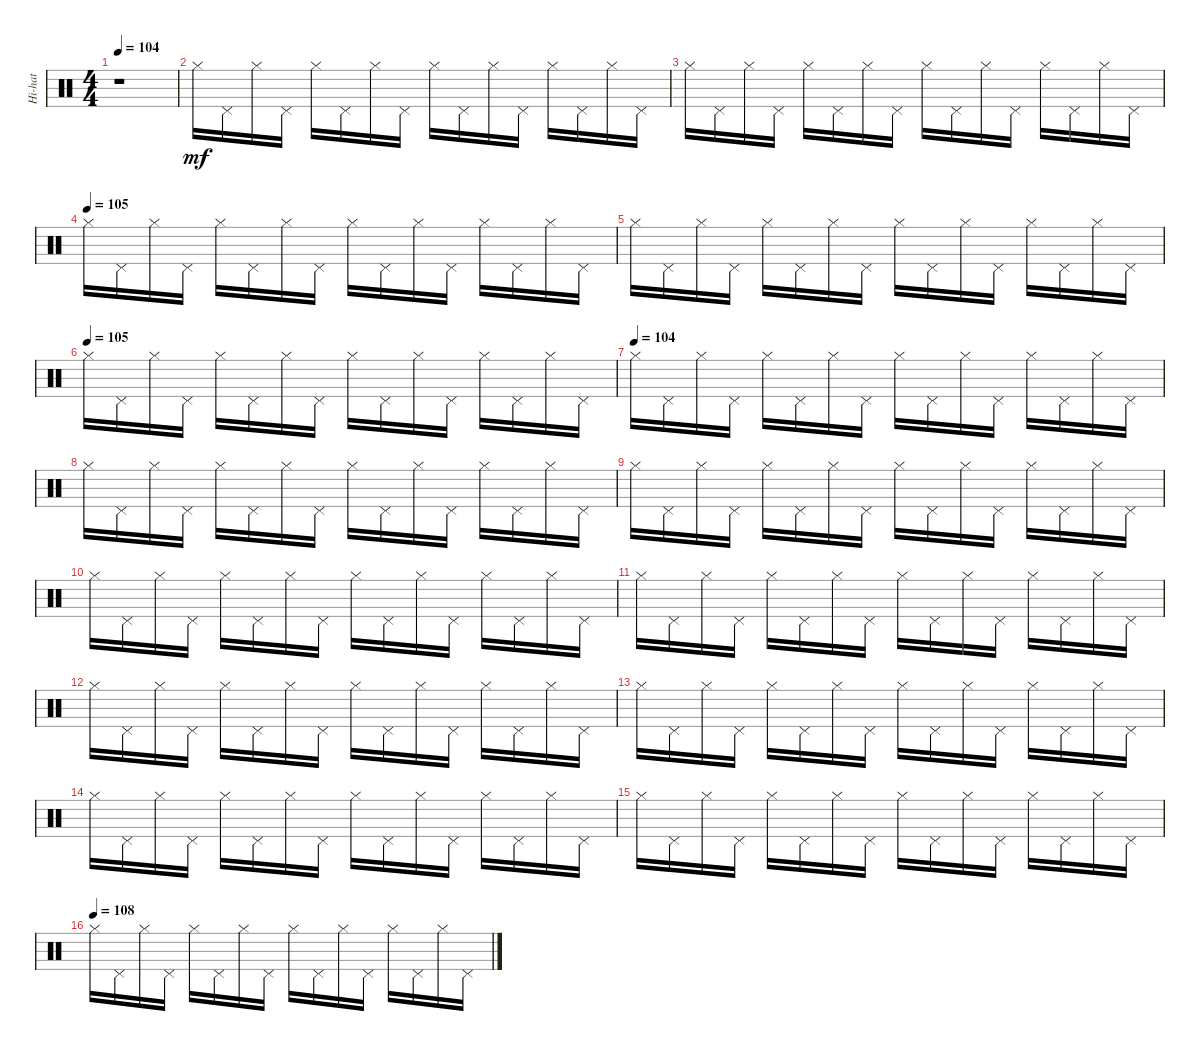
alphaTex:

\track ("Hi-hat" "Hi-hat") {instrument percussion}
\staff {score}
\articulation defaults
\ts (4 4)
\tempo 104
\clef neutral
\ks c
r.1{dy mf} |
"Hi-Hat (closed)".16 "Pedal Hi-Hat (hit)".16 "Hi-Hat (closed)".16 "Pedal Hi-Hat (hit)".16 "Hi-Hat (closed)".16 "Pedal Hi-Hat (hit)".16 "Hi-Hat (closed)".16 "Pedal Hi-Hat (hit)".16 "Hi-Hat (closed)".16 "Pedal Hi-Hat (hit)".16 "Hi-Hat (closed)".16 "Pedal Hi-Hat (hit)".16 "Hi-Hat (closed)".16 "Pedal Hi-Hat (hit)".16 "Hi-Hat (closed)".16 "Pedal Hi-Hat (hit)".16 |
"Hi-Hat (closed)".16 "Pedal Hi-Hat (hit)".16 "Hi-Hat (closed)".16 "Pedal Hi-Hat (hit)".16 "Hi-Hat (closed)".16 "Pedal Hi-Hat (hit)".16 "Hi-Hat (closed)".16 "Pedal Hi-Hat (hit)".16 "Hi-Hat (closed)".16 "Pedal Hi-Hat (hit)".16 "Hi-Hat (closed)".16 "Pedal Hi-Hat (hit)".16 "Hi-Hat (closed)".16 "Pedal Hi-Hat (hit)".16 "Hi-Hat (closed)".16 "Pedal Hi-Hat (hit)".16 |
\tempo (105)
"Hi-Hat (closed)".16 "Pedal Hi-Hat (hit)".16 "Hi-Hat (closed)".16 "Pedal Hi-Hat (hit)".16 "Hi-Hat (closed)".16 "Pedal Hi-Hat (hit)".16 "Hi-Hat (closed)".16 "Pedal Hi-Hat (hit)".16 "Hi-Hat (closed)".16 "Pedal Hi-Hat (hit)".16 "Hi-Hat (closed)".16 "Pedal Hi-Hat (hit)".16 "Hi-Hat (closed)".16 "Pedal Hi-Hat (hit)".16 "Hi-Hat (closed)".16 "Pedal Hi-Hat (hit)".16 |
"Hi-Hat (closed)".16 "Pedal Hi-Hat (hit)".16 "Hi-Hat (closed)".16 "Pedal Hi-Hat (hit)".16 "Hi-Hat (closed)".16 "Pedal Hi-Hat (hit)".16 "Hi-Hat (closed)".16 "Pedal Hi-Hat (hit)".16 "Hi-Hat (closed)".16 "Pedal Hi-Hat (hit)".16 "Hi-Hat (closed)".16 "Pedal Hi-Hat (hit)".16 "Hi-Hat (closed)".16 "Pedal Hi-Hat (hit)".16 "Hi-Hat (closed)".16 "Pedal Hi-Hat (hit)".16 |
\tempo (105)
"Hi-Hat (closed)".16 "Pedal Hi-Hat (hit)".16 "Hi-Hat (closed)".16 "Pedal Hi-Hat (hit)".16 "Hi-Hat (closed)".16 "Pedal Hi-Hat (hit)".16 "Hi-Hat (closed)".16 "Pedal Hi-Hat (hit)".16 "Hi-Hat (closed)".16 "Pedal Hi-Hat (hit)".16 "Hi-Hat (closed)".16 "Pedal Hi-Hat (hit)".16 "Hi-Hat (closed)".16 "Pedal Hi-Hat (hit)".16 "Hi-Hat (closed)".16 "Pedal Hi-Hat (hit)".16 |
\tempo (104)
"Hi-Hat (closed)".16 "Pedal Hi-Hat (hit)".16 "Hi-Hat (closed)".16 "Pedal Hi-Hat (hit)".16 "Hi-Hat (closed)".16 "Pedal Hi-Hat (hit)".16 "Hi-Hat (closed)".16 "Pedal Hi-Hat (hit)".16 "Hi-Hat (closed)".16 "Pedal Hi-Hat (hit)".16 "Hi-Hat (closed)".16 "Pedal Hi-Hat (hit)".16 "Hi-Hat (closed)".16 "Pedal Hi-Hat (hit)".16 "Hi-Hat (closed)".16 "Pedal Hi-Hat (hit)".16 |
"Hi-Hat (closed)".16 "Pedal Hi-Hat (hit)".16 "Hi-Hat (closed)".16 "Pedal Hi-Hat (hit)".16 "Hi-Hat (closed)".16 "Pedal Hi-Hat (hit)".16 "Hi-Hat (closed)".16 "Pedal Hi-Hat (hit)".16 "Hi-Hat (closed)".16 "Pedal Hi-Hat (hit)".16 "Hi-Hat (closed)".16 "Pedal Hi-Hat (hit)".16 "Hi-Hat (closed)".16 "Pedal Hi-Hat (hit)".16 "Hi-Hat (closed)".16 "Pedal Hi-Hat (hit)".16 |
"Hi-Hat (closed)".16 "Pedal Hi-Hat (hit)".16 "Hi-Hat (closed)".16 "Pedal Hi-Hat (hit)".16 "Hi-Hat (closed)".16 "Pedal Hi-Hat (hit)".16 "Hi-Hat (closed)".16 "Pedal Hi-Hat (hit)".16 "Hi-Hat (closed)".16 "Pedal Hi-Hat (hit)".16 "Hi-Hat (closed)".16 "Pedal Hi-Hat (hit)".16 "Hi-Hat (closed)".16 "Pedal Hi-Hat (hit)".16 "Hi-Hat (closed)".16 "Pedal Hi-Hat (hit)".16 |
"Hi-Hat (closed)".16 "Pedal Hi-Hat (hit)".16 "Hi-Hat (closed)".16 "Pedal Hi-Hat (hit)".16 "Hi-Hat (closed)".16 "Pedal Hi-Hat (hit)".16 "Hi-Hat (closed)".16 "Pedal Hi-Hat (hit)".16 "Hi-Hat (closed)".16 "Pedal Hi-Hat (hit)".16 "Hi-Hat (closed)".16 "Pedal Hi-Hat (hit)".16 "Hi-Hat (closed)".16 "Pedal Hi-Hat (hit)".16 "Hi-Hat (closed)".16 "Pedal Hi-Hat (hit)".16 |
"Hi-Hat (closed)".16 "Pedal Hi-Hat (hit)".16 "Hi-Hat (closed)".16 "Pedal Hi-Hat (hit)".16 "Hi-Hat (closed)".16 "Pedal Hi-Hat (hit)".16 "Hi-Hat (closed)".16 "Pedal Hi-Hat (hit)".16 "Hi-Hat (closed)".16 "Pedal Hi-Hat (hit)".16 "Hi-Hat (closed)".16 "Pedal Hi-Hat (hit)".16 "Hi-Hat (closed)".16 "Pedal Hi-Hat (hit)".16 "Hi-Hat (closed)".16 "Pedal Hi-Hat (hit)".16 |
"Hi-Hat (closed)".16 "Pedal Hi-Hat (hit)".16 "Hi-Hat (closed)".16 "Pedal Hi-Hat (hit)".16 "Hi-Hat (closed)".16 "Pedal Hi-Hat (hit)".16 "Hi-Hat (closed)".16 "Pedal Hi-Hat (hit)".16 "Hi-Hat (closed)".16 "Pedal Hi-Hat (hit)".16 "Hi-Hat (closed)".16 "Pedal Hi-Hat (hit)".16 "Hi-Hat (closed)".16 "Pedal Hi-Hat (hit)".16 "Hi-Hat (closed)".16 "Pedal Hi-Hat (hit)".16 |
"Hi-Hat (closed)".16 "Pedal Hi-Hat (hit)".16 "Hi-Hat (closed)".16 "Pedal Hi-Hat (hit)".16 "Hi-Hat (closed)".16 "Pedal Hi-Hat (hit)".16 "Hi-Hat (closed)".16 "Pedal Hi-Hat (hit)".16 "Hi-Hat (closed)".16 "Pedal Hi-Hat (hit)".16 "Hi-Hat (closed)".16 "Pedal Hi-Hat (hit)".16 "Hi-Hat (closed)".16 "Pedal Hi-Hat (hit)".16 "Hi-Hat (closed)".16 "Pedal Hi-Hat (hit)".16 |
"Hi-Hat (closed)".16 "Pedal Hi-Hat (hit)".16 "Hi-Hat (closed)".16 "Pedal Hi-Hat (hit)".16 "Hi-Hat (closed)".16 "Pedal Hi-Hat (hit)".16 "Hi-Hat (closed)".16 "Pedal Hi-Hat (hit)".16 "Hi-Hat (closed)".16 "Pedal Hi-Hat (hit)".16 "Hi-Hat (closed)".16 "Pedal Hi-Hat (hit)".16 "Hi-Hat (closed)".16 "Pedal Hi-Hat (hit)".16 "Hi-Hat (closed)".16 "Pedal Hi-Hat (hit)".16 |
"Hi-Hat (closed)".16 "Pedal Hi-Hat (hit)".16 "Hi-Hat (closed)".16 "Pedal Hi-Hat (hit)".16 "Hi-Hat (closed)".16 "Pedal Hi-Hat (hit)".16 "Hi-Hat (closed)".16 "Pedal Hi-Hat (hit)".16 "Hi-Hat (closed)".16 "Pedal Hi-Hat (hit)".16 "Hi-Hat (closed)".16 "Pedal Hi-Hat (hit)".16 "Hi-Hat (closed)".16 "Pedal Hi-Hat (hit)".16 "Hi-Hat (closed)".16 "Pedal Hi-Hat (hit)".16 |
\tempo (108)
"Hi-Hat (closed)".16 "Pedal Hi-Hat (hit)".16 "Hi-Hat (closed)".16 "Pedal Hi-Hat (hit)".16 "Hi-Hat (closed)".16 "Pedal Hi-Hat (hit)".16 "Hi-Hat (closed)".16 "Pedal Hi-Hat (hit)".16 "Hi-Hat (closed)".16 "Pedal Hi-Hat (hit)".16 "Hi-Hat (closed)".16 "Pedal Hi-Hat (hit)".16 "Hi-Hat (closed)".16 "Pedal Hi-Hat (hit)".16 "Hi-Hat (closed)".16 "Pedal Hi-Hat (hit)".16
